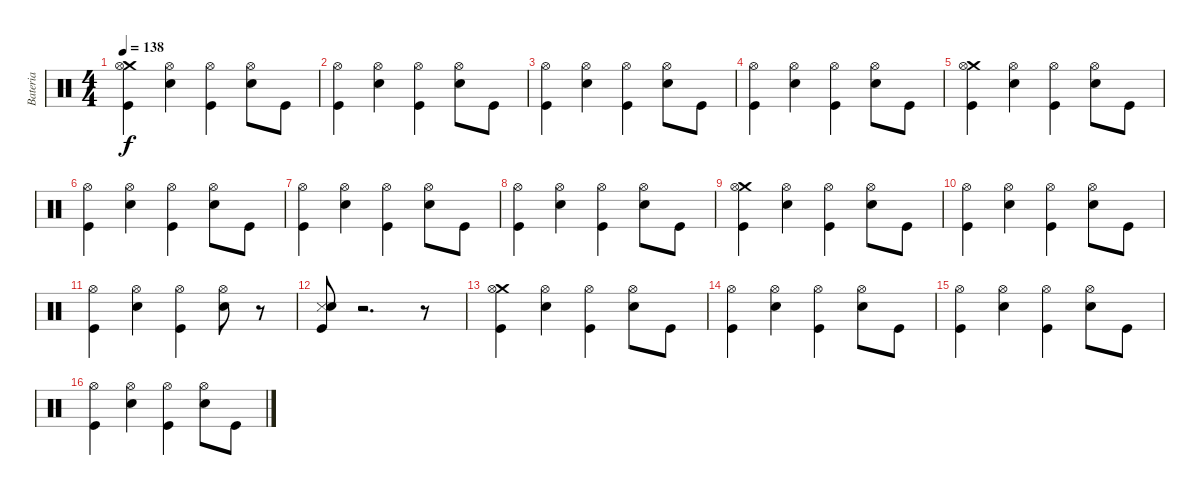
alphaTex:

\track ("Bateria" "Bateria") {instrument percussion}
\staff {score}
\articulation defaults
\ts (4 4)
\tempo 138
\clef neutral
\ks c
("Crash medium (hit)" "Hi-Hat (open)" "Kick (hit)").4{dy f} ("Snare (hit) 2" "Hi-Hat (open)").4 ("Hi-Hat (open)" "Kick (hit)").4 ("Snare (hit) 2" "Hi-Hat (open)").8 "Kick (hit)".8 |
("Hi-Hat (open)" "Kick (hit)").4 ("Snare (hit) 2" "Hi-Hat (open)").4 ("Hi-Hat (open)" "Kick (hit)").4 ("Snare (hit) 2" "Hi-Hat (open)").8 "Kick (hit)".8 |
("Hi-Hat (open)" "Kick (hit)").4 ("Snare (hit) 2" "Hi-Hat (open)").4 ("Hi-Hat (open)" "Kick (hit)").4 ("Snare (hit) 2" "Hi-Hat (open)").8 "Kick (hit)".8 |
("Hi-Hat (open)" "Kick (hit)").4 ("Snare (hit) 2" "Hi-Hat (open)").4 ("Hi-Hat (open)" "Kick (hit)").4 ("Snare (hit) 2" "Hi-Hat (open)").8 "Kick (hit)".8 |
("Crash medium (hit)" "Hi-Hat (open)" "Kick (hit)").4 ("Snare (hit) 2" "Hi-Hat (open)").4 ("Hi-Hat (open)" "Kick (hit)").4 ("Snare (hit) 2" "Hi-Hat (open)").8 "Kick (hit)".8 |
("Hi-Hat (open)" "Kick (hit)").4 ("Snare (hit) 2" "Hi-Hat (open)").4 ("Hi-Hat (open)" "Kick (hit)").4 ("Snare (hit) 2" "Hi-Hat (open)").8 "Kick (hit)".8 |
("Hi-Hat (open)" "Kick (hit)").4 ("Snare (hit) 2" "Hi-Hat (open)").4 ("Hi-Hat (open)" "Kick (hit)").4 ("Snare (hit) 2" "Hi-Hat (open)").8 "Kick (hit)".8 |
("Hi-Hat (open)" "Kick (hit)").4 ("Snare (hit) 2" "Hi-Hat (open)").4 ("Hi-Hat (open)" "Kick (hit)").4 ("Snare (hit) 2" "Hi-Hat (open)").8 "Kick (hit)".8 |
("Crash medium (hit)" "Hi-Hat (open)" "Kick (hit)").4 ("Snare (hit) 2" "Hi-Hat (open)").4 ("Hi-Hat (open)" "Kick (hit)").4 ("Snare (hit) 2" "Hi-Hat (open)").8 "Kick (hit)".8 |
("Hi-Hat (open)" "Kick (hit)").4 ("Snare (hit) 2" "Hi-Hat (open)").4 ("Hi-Hat (open)" "Kick (hit)").4 ("Snare (hit) 2" "Hi-Hat (open)").8 "Kick (hit)".8 |
("Hi-Hat (open)" "Kick (hit)").4 ("Snare (hit) 2" "Hi-Hat (open)").4 ("Hi-Hat (open)" "Kick (hit)").4 ("Snare (hit) 2" "Hi-Hat (open)").8 r.8 |
("Snare (side stick) 3" "Kick (hit)" "Snare (hit) 2").8 r.2{d} r.8 |
("Crash medium (hit)" "Hi-Hat (open)" "Kick (hit)").4 ("Snare (hit) 2" "Hi-Hat (open)").4 ("Hi-Hat (open)" "Kick (hit)").4 ("Snare (hit) 2" "Hi-Hat (open)").8 "Kick (hit)".8 |
("Hi-Hat (open)" "Kick (hit)").4 ("Snare (hit) 2" "Hi-Hat (open)").4 ("Hi-Hat (open)" "Kick (hit)").4 ("Snare (hit) 2" "Hi-Hat (open)").8 "Kick (hit)".8 |
("Hi-Hat (open)" "Kick (hit)").4 ("Snare (hit) 2" "Hi-Hat (open)").4 ("Hi-Hat (open)" "Kick (hit)").4 ("Snare (hit) 2" "Hi-Hat (open)").8 "Kick (hit)".8 |
("Hi-Hat (open)" "Kick (hit)").4 ("Snare (hit) 2" "Hi-Hat (open)").4 ("Hi-Hat (open)" "Kick (hit)").4 ("Snare (hit) 2" "Hi-Hat (open)").8 "Kick (hit)".8
